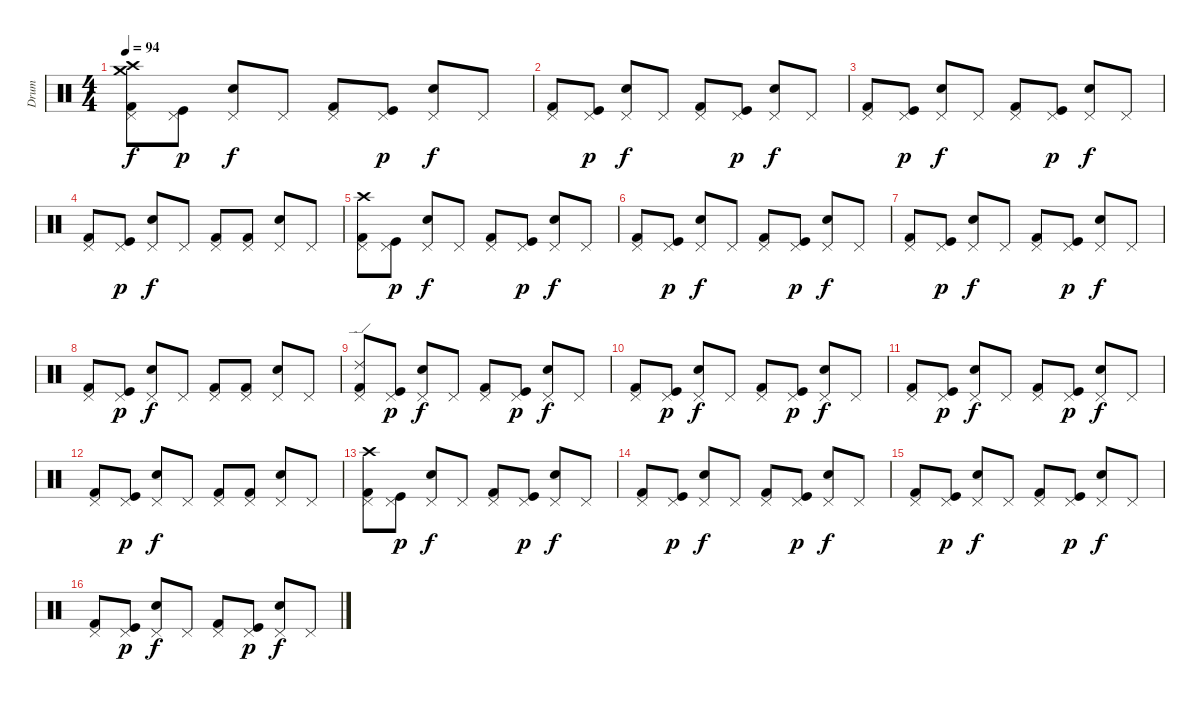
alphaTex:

\track ("Drum" "Drum") {instrument percussion}
\staff {score}
\articulation defaults
\ts (4 4)
\section ("" "")
\tempo 94
\clef neutral
\ks c
("Crash high (hit)" "Crash medium (hit)" "Kick (hit) 2" "Pedal Hi-Hat (hit)").8{dy f} ("Kick (hit)" "Pedal Hi-Hat (hit)").8{dy p} ("Snare (hit) 2" "Pedal Hi-Hat (hit)").8{dy f} "Pedal Hi-Hat (hit)".8 ("Kick (hit) 2" "Pedal Hi-Hat (hit)").8 ("Kick (hit)" "Pedal Hi-Hat (hit)").8{dy p} ("Snare (hit) 2" "Pedal Hi-Hat (hit)").8{dy f} "Pedal Hi-Hat (hit)".8 |
("Kick (hit) 2" "Pedal Hi-Hat (hit)").8 ("Kick (hit)" "Pedal Hi-Hat (hit)").8{dy p} ("Snare (hit) 2" "Pedal Hi-Hat (hit)").8{dy f} "Pedal Hi-Hat (hit)".8 ("Kick (hit) 2" "Pedal Hi-Hat (hit)").8 ("Kick (hit)" "Pedal Hi-Hat (hit)").8{dy p} ("Snare (hit) 2" "Pedal Hi-Hat (hit)").8{dy f} "Pedal Hi-Hat (hit)".8 |
("Kick (hit) 2" "Pedal Hi-Hat (hit)").8 ("Kick (hit)" "Pedal Hi-Hat (hit)").8{dy p} ("Snare (hit) 2" "Pedal Hi-Hat (hit)").8{dy f} "Pedal Hi-Hat (hit)".8 ("Kick (hit) 2" "Pedal Hi-Hat (hit)").8 ("Kick (hit)" "Pedal Hi-Hat (hit)").8{dy p} ("Snare (hit) 2" "Pedal Hi-Hat (hit)").8{dy f} "Pedal Hi-Hat (hit)".8 |
("Kick (hit) 2" "Pedal Hi-Hat (hit)").8 ("Kick (hit)" "Pedal Hi-Hat (hit)").8{dy p} ("Snare (hit) 2" "Pedal Hi-Hat (hit)").8{dy f} "Pedal Hi-Hat (hit)".8 ("Kick (hit) 2" "Pedal Hi-Hat (hit)").8 ("Kick (hit) 2" "Pedal Hi-Hat (hit)").8 ("Snare (hit) 2" "Pedal Hi-Hat (hit)").8 "Pedal Hi-Hat (hit)".8 |
("Crash high (hit)" "Kick (hit) 2" "Pedal Hi-Hat (hit)").8 ("Kick (hit)" "Pedal Hi-Hat (hit)").8{dy p} ("Snare (hit) 2" "Pedal Hi-Hat (hit)").8{dy f} "Pedal Hi-Hat (hit)".8 ("Kick (hit) 2" "Pedal Hi-Hat (hit)").8 ("Kick (hit)" "Pedal Hi-Hat (hit)").8{dy p} ("Snare (hit) 2" "Pedal Hi-Hat (hit)").8{dy f} "Pedal Hi-Hat (hit)".8 |
("Kick (hit) 2" "Pedal Hi-Hat (hit)").8 ("Kick (hit)" "Pedal Hi-Hat (hit)").8{dy p} ("Snare (hit) 2" "Pedal Hi-Hat (hit)").8{dy f} "Pedal Hi-Hat (hit)".8 ("Kick (hit) 2" "Pedal Hi-Hat (hit)").8 ("Kick (hit)" "Pedal Hi-Hat (hit)").8{dy p} ("Snare (hit) 2" "Pedal Hi-Hat (hit)").8{dy f} "Pedal Hi-Hat (hit)".8 |
("Kick (hit) 2" "Pedal Hi-Hat (hit)").8 ("Kick (hit)" "Pedal Hi-Hat (hit)").8{dy p} ("Snare (hit) 2" "Pedal Hi-Hat (hit)").8{dy f} "Pedal Hi-Hat (hit)".8 ("Kick (hit) 2" "Pedal Hi-Hat (hit)").8 ("Kick (hit)" "Pedal Hi-Hat (hit)").8{dy p} ("Snare (hit) 2" "Pedal Hi-Hat (hit)").8{dy f} "Pedal Hi-Hat (hit)".8 |
("Kick (hit) 2" "Pedal Hi-Hat (hit)").8 ("Kick (hit)" "Pedal Hi-Hat (hit)").8{dy p} ("Snare (hit) 2" "Pedal Hi-Hat (hit)").8{dy f} "Pedal Hi-Hat (hit)".8 ("Kick (hit) 2" "Pedal Hi-Hat (hit)").8 ("Kick (hit) 2" "Pedal Hi-Hat (hit)").8 ("Snare (hit) 2" "Pedal Hi-Hat (hit)").8 "Pedal Hi-Hat (hit)".8 |
("Ride (edge) 2" "Kick (hit) 2" "Pedal Hi-Hat (hit)").8 ("Kick (hit)" "Pedal Hi-Hat (hit)").8{dy p} ("Snare (hit) 2" "Pedal Hi-Hat (hit)").8{dy f} "Pedal Hi-Hat (hit)".8 ("Kick (hit) 2" "Pedal Hi-Hat (hit)").8 ("Kick (hit)" "Pedal Hi-Hat (hit)").8{dy p} ("Snare (hit) 2" "Pedal Hi-Hat (hit)").8{dy f} "Pedal Hi-Hat (hit)".8 |
("Kick (hit) 2" "Pedal Hi-Hat (hit)").8 ("Kick (hit)" "Pedal Hi-Hat (hit)").8{dy p} ("Snare (hit) 2" "Pedal Hi-Hat (hit)").8{dy f} "Pedal Hi-Hat (hit)".8 ("Kick (hit) 2" "Pedal Hi-Hat (hit)").8 ("Kick (hit)" "Pedal Hi-Hat (hit)").8{dy p} ("Snare (hit) 2" "Pedal Hi-Hat (hit)").8{dy f} "Pedal Hi-Hat (hit)".8 |
("Kick (hit) 2" "Pedal Hi-Hat (hit)").8 ("Kick (hit)" "Pedal Hi-Hat (hit)").8{dy p} ("Snare (hit) 2" "Pedal Hi-Hat (hit)").8{dy f} "Pedal Hi-Hat (hit)".8 ("Kick (hit) 2" "Pedal Hi-Hat (hit)").8 ("Kick (hit)" "Pedal Hi-Hat (hit)").8{dy p} ("Snare (hit) 2" "Pedal Hi-Hat (hit)").8{dy f} "Pedal Hi-Hat (hit)".8 |
("Kick (hit) 2" "Pedal Hi-Hat (hit)").8 ("Kick (hit)" "Pedal Hi-Hat (hit)").8{dy p} ("Snare (hit) 2" "Pedal Hi-Hat (hit)").8{dy f} "Pedal Hi-Hat (hit)".8 ("Kick (hit) 2" "Pedal Hi-Hat (hit)").8 ("Kick (hit) 2" "Pedal Hi-Hat (hit)").8 ("Snare (hit) 2" "Pedal Hi-Hat (hit)").8 "Pedal Hi-Hat (hit)".8 |
("Crash high (hit)" "Kick (hit) 2" "Pedal Hi-Hat (hit)").8 ("Kick (hit)" "Pedal Hi-Hat (hit)").8{dy p} ("Snare (hit) 2" "Pedal Hi-Hat (hit)").8{dy f} "Pedal Hi-Hat (hit)".8 ("Kick (hit) 2" "Pedal Hi-Hat (hit)").8 ("Kick (hit)" "Pedal Hi-Hat (hit)").8{dy p} ("Snare (hit) 2" "Pedal Hi-Hat (hit)").8{dy f} "Pedal Hi-Hat (hit)".8 |
("Kick (hit) 2" "Pedal Hi-Hat (hit)").8 ("Kick (hit)" "Pedal Hi-Hat (hit)").8{dy p} ("Snare (hit) 2" "Pedal Hi-Hat (hit)").8{dy f} "Pedal Hi-Hat (hit)".8 ("Kick (hit) 2" "Pedal Hi-Hat (hit)").8 ("Kick (hit)" "Pedal Hi-Hat (hit)").8{dy p} ("Snare (hit) 2" "Pedal Hi-Hat (hit)").8{dy f} "Pedal Hi-Hat (hit)".8 |
("Kick (hit) 2" "Pedal Hi-Hat (hit)").8 ("Kick (hit)" "Pedal Hi-Hat (hit)").8{dy p} ("Snare (hit) 2" "Pedal Hi-Hat (hit)").8{dy f} "Pedal Hi-Hat (hit)".8 ("Kick (hit) 2" "Pedal Hi-Hat (hit)").8 ("Kick (hit)" "Pedal Hi-Hat (hit)").8{dy p} ("Snare (hit) 2" "Pedal Hi-Hat (hit)").8{dy f} "Pedal Hi-Hat (hit)".8 |
("Kick (hit) 2" "Pedal Hi-Hat (hit)").8 ("Kick (hit)" "Pedal Hi-Hat (hit)").8{dy p} ("Snare (hit) 2" "Pedal Hi-Hat (hit)").8{dy f} "Pedal Hi-Hat (hit)".8 ("Kick (hit) 2" "Pedal Hi-Hat (hit)").8 ("Kick (hit)" "Pedal Hi-Hat (hit)").8{dy p} ("Snare (hit) 2" "Pedal Hi-Hat (hit)").8{dy f} "Pedal Hi-Hat (hit)".8
